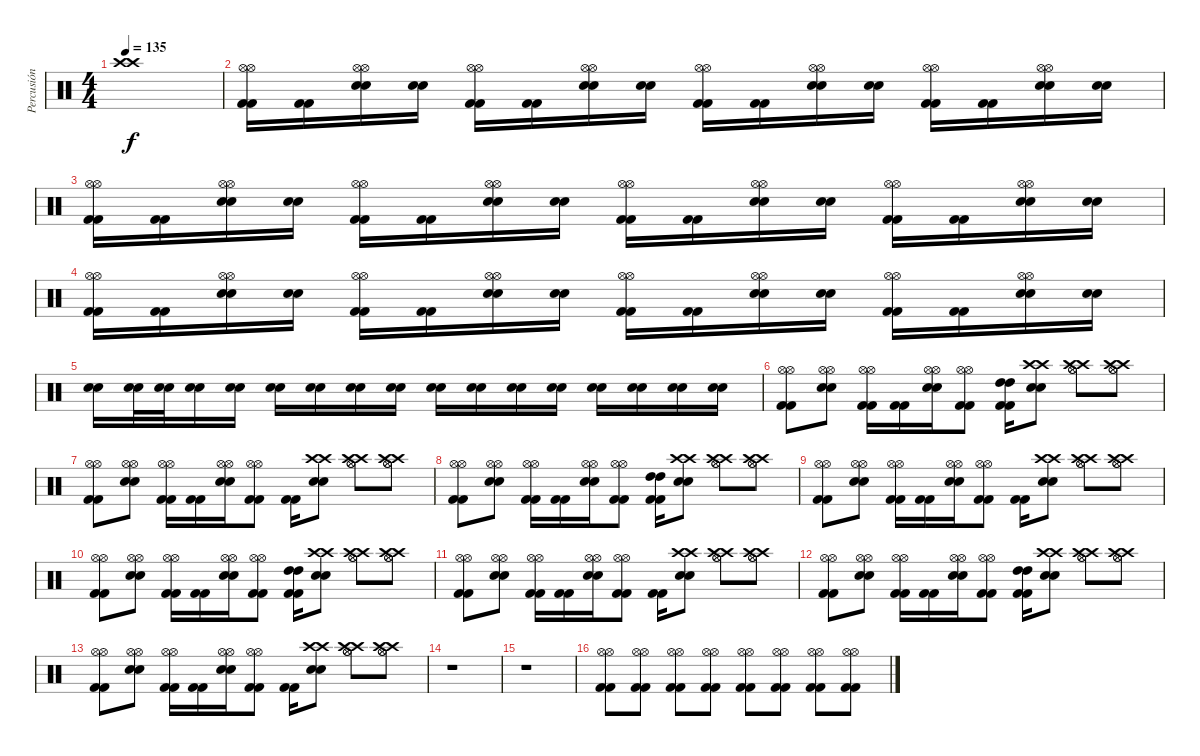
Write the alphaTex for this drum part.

\track ("Percusión" "Percusión") {instrument percussion}
\staff {score}
\articulation defaults
\ts (4 4)
\tempo 135
\clef neutral
\ks c
("Crash high (hit)"{t} "Crash high (hit)"{t}).1{dy f} |
("Kick (hit) 2" "Kick (hit) 2" "Hi-Hat (open)" "Hi-Hat (open)").16 ("Kick (hit) 2" "Kick (hit) 2").16 ("Snare (hit) 2" "Snare (hit) 2" "Hi-Hat (open)" "Hi-Hat (open)").16 ("Snare (hit) 2" "Snare (hit) 2").16 ("Kick (hit) 2" "Kick (hit) 2" "Hi-Hat (open)" "Hi-Hat (open)").16 ("Kick (hit) 2" "Kick (hit) 2").16 ("Snare (hit) 2" "Snare (hit) 2" "Hi-Hat (open)" "Hi-Hat (open)").16 ("Snare (hit) 2" "Snare (hit) 2").16 ("Kick (hit) 2" "Kick (hit) 2" "Hi-Hat (open)" "Hi-Hat (open)").16 ("Kick (hit) 2" "Kick (hit) 2").16 ("Snare (hit) 2" "Snare (hit) 2" "Hi-Hat (open)" "Hi-Hat (open)").16 ("Snare (hit) 2" "Snare (hit) 2").16 ("Kick (hit) 2" "Kick (hit) 2" "Hi-Hat (open)" "Hi-Hat (open)").16 ("Kick (hit) 2" "Kick (hit) 2").16 ("Snare (hit) 2" "Snare (hit) 2" "Hi-Hat (open)" "Hi-Hat (open)").16 ("Snare (hit) 2" "Snare (hit) 2").16 |
("Kick (hit) 2" "Kick (hit) 2" "Hi-Hat (open)" "Hi-Hat (open)").16 ("Kick (hit) 2" "Kick (hit) 2").16 ("Snare (hit) 2" "Snare (hit) 2" "Hi-Hat (open)" "Hi-Hat (open)").16 ("Snare (hit) 2" "Snare (hit) 2").16 ("Kick (hit) 2" "Kick (hit) 2" "Hi-Hat (open)" "Hi-Hat (open)").16 ("Kick (hit) 2" "Kick (hit) 2").16 ("Snare (hit) 2" "Snare (hit) 2" "Hi-Hat (open)" "Hi-Hat (open)").16 ("Snare (hit) 2" "Snare (hit) 2").16 ("Kick (hit) 2" "Kick (hit) 2" "Hi-Hat (open)" "Hi-Hat (open)").16 ("Kick (hit) 2" "Kick (hit) 2").16 ("Snare (hit) 2" "Snare (hit) 2" "Hi-Hat (open)" "Hi-Hat (open)").16 ("Snare (hit) 2" "Snare (hit) 2").16 ("Kick (hit) 2" "Kick (hit) 2" "Hi-Hat (open)" "Hi-Hat (open)").16 ("Kick (hit) 2" "Kick (hit) 2").16 ("Snare (hit) 2" "Snare (hit) 2" "Hi-Hat (open)" "Hi-Hat (open)").16 ("Snare (hit) 2" "Snare (hit) 2").16 |
("Kick (hit) 2" "Kick (hit) 2" "Hi-Hat (open)" "Hi-Hat (open)").16 ("Kick (hit) 2" "Kick (hit) 2").16 ("Snare (hit) 2" "Snare (hit) 2" "Hi-Hat (open)" "Hi-Hat (open)").16 ("Snare (hit) 2" "Snare (hit) 2").16 ("Kick (hit) 2" "Kick (hit) 2" "Hi-Hat (open)" "Hi-Hat (open)").16 ("Kick (hit) 2" "Kick (hit) 2").16 ("Snare (hit) 2" "Snare (hit) 2" "Hi-Hat (open)" "Hi-Hat (open)").16 ("Snare (hit) 2" "Snare (hit) 2").16 ("Kick (hit) 2" "Kick (hit) 2" "Hi-Hat (open)" "Hi-Hat (open)").16 ("Kick (hit) 2" "Kick (hit) 2").16 ("Snare (hit) 2" "Snare (hit) 2" "Hi-Hat (open)" "Hi-Hat (open)").16 ("Snare (hit) 2" "Snare (hit) 2").16 ("Kick (hit) 2" "Kick (hit) 2" "Hi-Hat (open)" "Hi-Hat (open)").16 ("Kick (hit) 2" "Kick (hit) 2").16 ("Snare (hit) 2" "Snare (hit) 2" "Hi-Hat (open)" "Hi-Hat (open)").16 ("Snare (hit) 2" "Snare (hit) 2").16 |
("Snare (hit) 2" "Snare (hit) 2").16 ("Snare (hit) 2" "Snare (hit) 2").32 ("Snare (hit) 2" "Snare (hit) 2").32 ("Snare (hit) 2" "Snare (hit) 2").16 ("Snare (hit) 2" "Snare (hit) 2").16 ("Snare (hit) 2" "Snare (hit) 2").16 ("Snare (hit) 2" "Snare (hit) 2").16 ("Snare (hit) 2" "Snare (hit) 2").16 ("Snare (hit) 2" "Snare (hit) 2").16 ("Snare (hit) 2" "Snare (hit) 2").16 ("Snare (hit) 2" "Snare (hit) 2").16 ("Snare (hit) 2" "Snare (hit) 2").16 ("Snare (hit) 2" "Snare (hit) 2").16 ("Snare (hit) 2" "Snare (hit) 2").16 ("Snare (hit) 2" "Snare (hit) 2").16 ("Snare (hit) 2" "Snare (hit) 2").16 ("Snare (hit) 2" "Snare (hit) 2").16 |
("Kick (hit) 2" "Kick (hit) 2" "Hi-Hat (open)" "Hi-Hat (open)").8 ("Snare (hit) 2" "Snare (hit) 2" "Hi-Hat (open)" "Hi-Hat (open)").8 ("Kick (hit) 2" "Kick (hit) 2" "Hi-Hat (open)" "Hi-Hat (open)").16 ("Kick (hit) 2" "Kick (hit) 2").16 ("Snare (hit) 2" "Snare (hit) 2" "Hi-Hat (open)" "Hi-Hat (open)").16 ("Kick (hit) 2" "Kick (hit) 2" "Hi-Hat (open)" "Hi-Hat (open)").8 ("Kick (hit) 2" "Kick (hit) 2" "High Tom (hit)" "High Tom (hit)").16 ("Snare (hit) 2" "Snare (hit) 2" "Crash high (hit)" "Crash high (hit)").8 ("Crash high (hit)" "Crash high (hit)" "Hi-Hat (open)" "Hi-Hat (open)").8 ("Crash high (hit)" "Crash high (hit)" "Hi-Hat (open)" "Hi-Hat (open)").8 |
("Kick (hit) 2" "Kick (hit) 2" "Hi-Hat (open)" "Hi-Hat (open)").8 ("Snare (hit) 2" "Snare (hit) 2" "Hi-Hat (open)" "Hi-Hat (open)").8 ("Kick (hit) 2" "Kick (hit) 2" "Hi-Hat (open)" "Hi-Hat (open)").16 ("Kick (hit) 2" "Kick (hit) 2").16 ("Snare (hit) 2" "Snare (hit) 2" "Hi-Hat (open)" "Hi-Hat (open)").16 ("Kick (hit) 2" "Kick (hit) 2" "Hi-Hat (open)" "Hi-Hat (open)").8 ("Kick (hit) 2" "Kick (hit) 2").16 ("Snare (hit) 2" "Snare (hit) 2" "Crash high (hit)" "Crash high (hit)").8 ("Crash high (hit)" "Crash high (hit)" "Hi-Hat (open)" "Hi-Hat (open)").8 ("Crash high (hit)" "Crash high (hit)" "Hi-Hat (open)" "Hi-Hat (open)").8 |
("Kick (hit) 2" "Kick (hit) 2" "Hi-Hat (open)" "Hi-Hat (open)").8 ("Snare (hit) 2" "Snare (hit) 2" "Hi-Hat (open)" "Hi-Hat (open)").8 ("Kick (hit) 2" "Kick (hit) 2" "Hi-Hat (open)" "Hi-Hat (open)").16 ("Kick (hit) 2" "Kick (hit) 2").16 ("Snare (hit) 2" "Snare (hit) 2" "Hi-Hat (open)" "Hi-Hat (open)").16 ("Kick (hit) 2" "Kick (hit) 2" "Hi-Hat (open)" "Hi-Hat (open)").8 ("Kick (hit) 2" "Kick (hit) 2" "High Tom (hit)" "High Tom (hit)").16 ("Snare (hit) 2" "Snare (hit) 2" "Crash high (hit)" "Crash high (hit)").8 ("Crash high (hit)" "Crash high (hit)" "Hi-Hat (open)" "Hi-Hat (open)").8 ("Crash high (hit)" "Crash high (hit)" "Hi-Hat (open)" "Hi-Hat (open)").8 |
("Kick (hit) 2" "Kick (hit) 2" "Hi-Hat (open)" "Hi-Hat (open)").8 ("Snare (hit) 2" "Snare (hit) 2" "Hi-Hat (open)" "Hi-Hat (open)").8 ("Kick (hit) 2" "Kick (hit) 2" "Hi-Hat (open)" "Hi-Hat (open)").16 ("Kick (hit) 2" "Kick (hit) 2").16 ("Snare (hit) 2" "Snare (hit) 2" "Hi-Hat (open)" "Hi-Hat (open)").16 ("Kick (hit) 2" "Kick (hit) 2" "Hi-Hat (open)" "Hi-Hat (open)").8 ("Kick (hit) 2" "Kick (hit) 2").16 ("Snare (hit) 2" "Snare (hit) 2" "Crash high (hit)" "Crash high (hit)").8 ("Crash high (hit)" "Crash high (hit)" "Hi-Hat (open)" "Hi-Hat (open)").8 ("Crash high (hit)" "Crash high (hit)" "Hi-Hat (open)" "Hi-Hat (open)").8 |
("Kick (hit) 2" "Kick (hit) 2" "Hi-Hat (open)" "Hi-Hat (open)").8 ("Snare (hit) 2" "Snare (hit) 2" "Hi-Hat (open)" "Hi-Hat (open)").8 ("Kick (hit) 2" "Kick (hit) 2" "Hi-Hat (open)" "Hi-Hat (open)").16 ("Kick (hit) 2" "Kick (hit) 2").16 ("Snare (hit) 2" "Snare (hit) 2" "Hi-Hat (open)" "Hi-Hat (open)").16 ("Kick (hit) 2" "Kick (hit) 2" "Hi-Hat (open)" "Hi-Hat (open)").8 ("Kick (hit) 2" "Kick (hit) 2" "High Tom (hit)" "High Tom (hit)").16 ("Snare (hit) 2" "Snare (hit) 2" "Crash high (hit)" "Crash high (hit)").8 ("Crash high (hit)" "Crash high (hit)" "Hi-Hat (open)" "Hi-Hat (open)").8 ("Crash high (hit)" "Crash high (hit)" "Hi-Hat (open)" "Hi-Hat (open)").8 |
("Kick (hit) 2" "Kick (hit) 2" "Hi-Hat (open)" "Hi-Hat (open)").8 ("Snare (hit) 2" "Snare (hit) 2" "Hi-Hat (open)" "Hi-Hat (open)").8 ("Kick (hit) 2" "Kick (hit) 2" "Hi-Hat (open)" "Hi-Hat (open)").16 ("Kick (hit) 2" "Kick (hit) 2").16 ("Snare (hit) 2" "Snare (hit) 2" "Hi-Hat (open)" "Hi-Hat (open)").16 ("Kick (hit) 2" "Kick (hit) 2" "Hi-Hat (open)" "Hi-Hat (open)").8 ("Kick (hit) 2" "Kick (hit) 2").16 ("Snare (hit) 2" "Snare (hit) 2" "Crash high (hit)" "Crash high (hit)").8 ("Crash high (hit)" "Crash high (hit)" "Hi-Hat (open)" "Hi-Hat (open)").8 ("Crash high (hit)" "Crash high (hit)" "Hi-Hat (open)" "Hi-Hat (open)").8 |
("Kick (hit) 2" "Kick (hit) 2" "Hi-Hat (open)" "Hi-Hat (open)").8 ("Snare (hit) 2" "Snare (hit) 2" "Hi-Hat (open)" "Hi-Hat (open)").8 ("Kick (hit) 2" "Kick (hit) 2" "Hi-Hat (open)" "Hi-Hat (open)").16 ("Kick (hit) 2" "Kick (hit) 2").16 ("Snare (hit) 2" "Snare (hit) 2" "Hi-Hat (open)" "Hi-Hat (open)").16 ("Kick (hit) 2" "Kick (hit) 2" "Hi-Hat (open)" "Hi-Hat (open)").8 ("Kick (hit) 2" "Kick (hit) 2" "High Tom (hit)" "High Tom (hit)").16 ("Snare (hit) 2" "Snare (hit) 2" "Crash high (hit)" "Crash high (hit)").8 ("Crash high (hit)" "Crash high (hit)" "Hi-Hat (open)" "Hi-Hat (open)").8 ("Crash high (hit)" "Crash high (hit)" "Hi-Hat (open)" "Hi-Hat (open)").8 |
("Kick (hit) 2" "Kick (hit) 2" "Hi-Hat (open)" "Hi-Hat (open)").8 ("Snare (hit) 2" "Snare (hit) 2" "Hi-Hat (open)" "Hi-Hat (open)").8 ("Kick (hit) 2" "Kick (hit) 2" "Hi-Hat (open)" "Hi-Hat (open)").16 ("Kick (hit) 2" "Kick (hit) 2").16 ("Snare (hit) 2" "Snare (hit) 2" "Hi-Hat (open)" "Hi-Hat (open)").16 ("Kick (hit) 2" "Kick (hit) 2" "Hi-Hat (open)" "Hi-Hat (open)").8 ("Kick (hit) 2" "Kick (hit) 2").16 ("Snare (hit) 2" "Snare (hit) 2" "Crash high (hit)" "Crash high (hit)").8 ("Crash high (hit)" "Crash high (hit)" "Hi-Hat (open)" "Hi-Hat (open)").8 ("Crash high (hit)" "Crash high (hit)" "Hi-Hat (open)" "Hi-Hat (open)").8 |
r.1 |
r.1 |
("Hi-Hat (open)" "Hi-Hat (open)" "Kick (hit) 2" "Kick (hit) 2").8 ("Hi-Hat (open)" "Hi-Hat (open)" "Kick (hit) 2" "Kick (hit) 2").8 ("Hi-Hat (open)" "Hi-Hat (open)" "Kick (hit) 2" "Kick (hit) 2").8 ("Hi-Hat (open)" "Hi-Hat (open)" "Kick (hit) 2" "Kick (hit) 2").8 ("Hi-Hat (open)" "Hi-Hat (open)" "Kick (hit) 2" "Kick (hit) 2").8 ("Hi-Hat (open)" "Hi-Hat (open)" "Kick (hit) 2" "Kick (hit) 2").8 ("Hi-Hat (open)" "Hi-Hat (open)" "Kick (hit) 2" "Kick (hit) 2").8 ("Hi-Hat (open)" "Hi-Hat (open)" "Kick (hit) 2" "Kick (hit) 2").8
